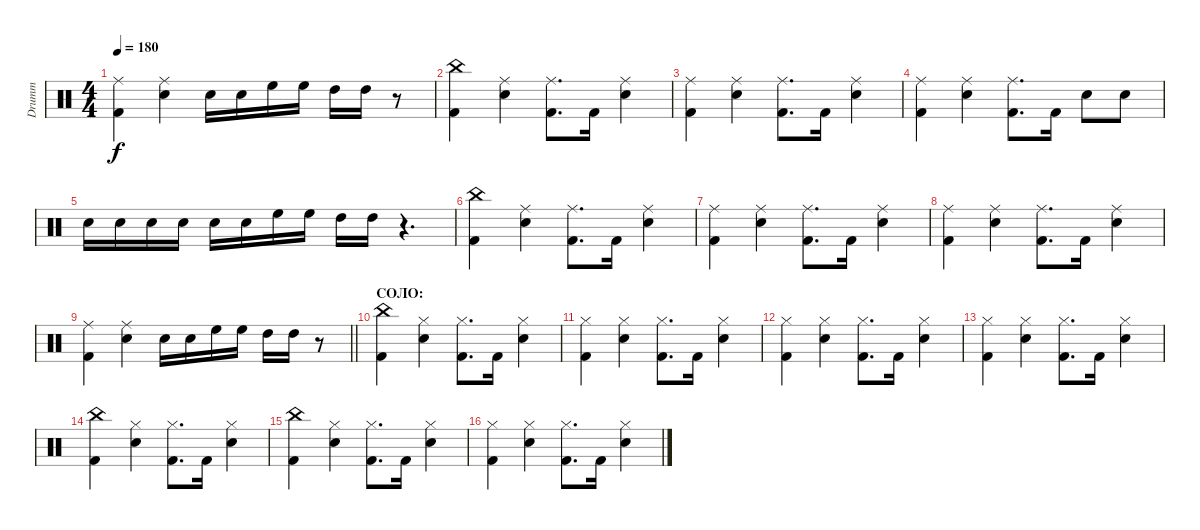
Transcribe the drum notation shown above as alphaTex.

\track ("Drumm" "Drumm") {instrument percussion}
\staff {score}
\articulation defaults
\ts (4 4)
\tempo 180
\clef neutral
\ks c
("Ride (middle)" "Kick (hit) 2").4{dy f} ("Ride (middle)" "Electric Snare (hit)").4 "Electric Snare (hit)".16 "Electric Snare (hit)".16 "High Floor Tom (hit)".16 "High Floor Tom (hit)".16 "High Tom (hit)".16 "High Tom (hit)".16 r.8 |
("China (hit)" "Kick (hit) 2").4 ("Ride (middle)" "Electric Snare (hit)").4 ("Ride (middle)" "Kick (hit) 2").8{d} "Kick (hit) 2".16 ("Ride (middle)" "Electric Snare (hit)").4 |
("Ride (middle)" "Kick (hit) 2").4 ("Ride (middle)" "Electric Snare (hit)").4 ("Ride (middle)" "Kick (hit) 2").8{d} "Kick (hit) 2".16 ("Ride (middle)" "Electric Snare (hit)").4 |
("Ride (middle)" "Kick (hit) 2").4 ("Ride (middle)" "Electric Snare (hit)").4 ("Ride (middle)" "Kick (hit) 2").8{d} "Kick (hit) 2".16 "Electric Snare (hit)".8 "Electric Snare (hit)".8 |
"Electric Snare (hit)".16 "Electric Snare (hit)".16 "Electric Snare (hit)".16 "Electric Snare (hit)".16 "Electric Snare (hit)".16 "Electric Snare (hit)".16 "High Floor Tom (hit)".16 "High Floor Tom (hit)".16 "High Tom (hit)".16 "High Tom (hit)".16 r.4{d} |
("China (hit)" "Kick (hit) 2").4 ("Ride (middle)" "Electric Snare (hit)").4 ("Ride (middle)" "Kick (hit) 2").8{d} "Kick (hit) 2".16 ("Ride (middle)" "Electric Snare (hit)").4 |
("Ride (middle)" "Kick (hit) 2").4 ("Ride (middle)" "Electric Snare (hit)").4 ("Ride (middle)" "Kick (hit) 2").8{d} "Kick (hit) 2".16 ("Ride (middle)" "Electric Snare (hit)").4 |
("Ride (middle)" "Kick (hit) 2").4 ("Ride (middle)" "Electric Snare (hit)").4 ("Ride (middle)" "Kick (hit) 2").8{d} "Kick (hit) 2".16 ("Ride (middle)" "Electric Snare (hit)").4 |
\barLineRight lightlight
("Ride (middle)" "Kick (hit) 2").4 ("Ride (middle)" "Electric Snare (hit)").4 "Electric Snare (hit)".16 "Electric Snare (hit)".16 "High Floor Tom (hit)".16 "High Floor Tom (hit)".16 "High Tom (hit)".16 "High Tom (hit)".16 r.8 |
\section ("" "СОЛО:")
("China (hit)" "Kick (hit) 2").4 ("Hi-Hat (closed)" "Electric Snare (hit)").4 ("Hi-Hat (closed)" "Kick (hit) 2").8{d} "Kick (hit) 2".16 ("Hi-Hat (closed)" "Electric Snare (hit)").4 |
("Hi-Hat (closed)" "Kick (hit) 2").4 ("Hi-Hat (closed)" "Electric Snare (hit)").4 ("Hi-Hat (closed)" "Kick (hit) 2").8{d} "Kick (hit) 2".16 ("Hi-Hat (closed)" "Electric Snare (hit)").4 |
("Hi-Hat (closed)" "Kick (hit) 2").4 ("Hi-Hat (closed)" "Electric Snare (hit)").4 ("Hi-Hat (closed)" "Kick (hit) 2").8{d} "Kick (hit) 2".16 ("Hi-Hat (closed)" "Electric Snare (hit)").4 |
("Hi-Hat (closed)" "Kick (hit) 2").4 ("Hi-Hat (closed)" "Electric Snare (hit)").4 ("Hi-Hat (closed)" "Kick (hit) 2").8{d} "Kick (hit) 2".16 ("Hi-Hat (closed)" "Electric Snare (hit)").4 |
("China (hit)" "Kick (hit) 2").4 ("Hi-Hat (closed)" "Electric Snare (hit)").4 ("Hi-Hat (closed)" "Kick (hit) 2").8{d} "Kick (hit) 2".16 ("Hi-Hat (closed)" "Electric Snare (hit)").4 |
("China (hit)" "Kick (hit) 2").4 ("Hi-Hat (closed)" "Electric Snare (hit)").4 ("Hi-Hat (closed)" "Kick (hit) 2").8{d} "Kick (hit) 2".16 ("Hi-Hat (closed)" "Electric Snare (hit)").4 |
("Hi-Hat (closed)" "Kick (hit) 2").4 ("Hi-Hat (closed)" "Electric Snare (hit)").4 ("Hi-Hat (closed)" "Kick (hit) 2").8{d} "Kick (hit) 2".16 ("Hi-Hat (closed)" "Electric Snare (hit)").4
